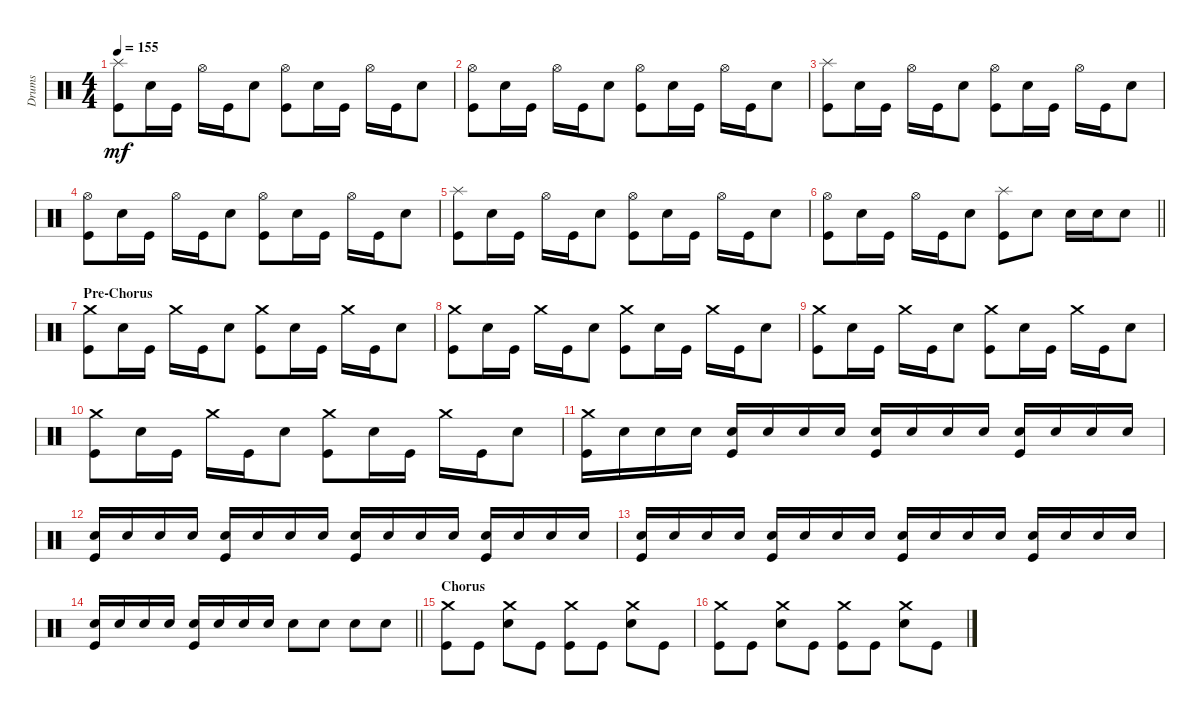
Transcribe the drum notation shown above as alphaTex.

\track ("Drums" "Drums") {instrument percussion}
\staff {score}
\articulation defaults
\ts (4 4)
\tempo 155
\clef neutral
\ks c
("Kick (hit)" "Splash (hit)").8{dy mf} "Snare (hit) 2".16 "Kick (hit)".16 "Hi-Hat (open)".16 "Kick (hit)".16 "Snare (hit) 2".8 ("Kick (hit)" "Hi-Hat (open)").8 "Snare (hit) 2".16 "Kick (hit)".16 "Hi-Hat (open)".16 "Kick (hit)".16 "Snare (hit) 2".8 |
("Kick (hit)" "Hi-Hat (open)").8 "Snare (hit) 2".16 "Kick (hit)".16 "Hi-Hat (open)".16 "Kick (hit)".16 "Snare (hit) 2".8 ("Kick (hit)" "Hi-Hat (open)").8 "Snare (hit) 2".16 "Kick (hit)".16 "Hi-Hat (open)".16 "Kick (hit)".16 "Snare (hit) 2".8 |
("Kick (hit)" "Splash (hit)").8 "Snare (hit) 2".16 "Kick (hit)".16 "Hi-Hat (open)".16 "Kick (hit)".16 "Snare (hit) 2".8 ("Kick (hit)" "Hi-Hat (open)").8 "Snare (hit) 2".16 "Kick (hit)".16 "Hi-Hat (open)".16 "Kick (hit)".16 "Snare (hit) 2".8 |
("Kick (hit)" "Hi-Hat (open)").8 "Snare (hit) 2".16 "Kick (hit)".16 "Hi-Hat (open)".16 "Kick (hit)".16 "Snare (hit) 2".8 ("Kick (hit)" "Hi-Hat (open)").8 "Snare (hit) 2".16 "Kick (hit)".16 "Hi-Hat (open)".16 "Kick (hit)".16 "Snare (hit) 2".8 |
("Kick (hit)" "Splash (hit)").8 "Snare (hit) 2".16 "Kick (hit)".16 "Hi-Hat (open)".16 "Kick (hit)".16 "Snare (hit) 2".8 ("Kick (hit)" "Hi-Hat (open)").8 "Snare (hit) 2".16 "Kick (hit)".16 "Hi-Hat (open)".16 "Kick (hit)".16 "Snare (hit) 2".8 |
\barLineRight lightlight
("Kick (hit)" "Hi-Hat (open)").8 "Snare (hit) 2".16 "Kick (hit)".16 "Hi-Hat (open)".16 "Kick (hit)".16 "Snare (hit) 2".8 ("Kick (hit)" "Splash (hit)").8 "Snare (hit) 2".8 "Snare (hit) 2".16 "Snare (hit) 2".16 "Snare (hit) 2".8 |
\section ("" "Pre-Chorus")
("Kick (hit)" "Crash medium (hit)").8 "Snare (hit) 2".16 "Kick (hit)".16 "Crash medium (hit)".16 "Kick (hit)".16 "Snare (hit) 2".8 ("Kick (hit)" "Crash medium (hit)").8 "Snare (hit) 2".16 "Kick (hit)".16 "Crash medium (hit)".16 "Kick (hit)".16 "Snare (hit) 2".8 |
("Kick (hit)" "Crash medium (hit)").8 "Snare (hit) 2".16 "Kick (hit)".16 "Crash medium (hit)".16 "Kick (hit)".16 "Snare (hit) 2".8 ("Kick (hit)" "Crash medium (hit)").8 "Snare (hit) 2".16 "Kick (hit)".16 "Crash medium (hit)".16 "Kick (hit)".16 "Snare (hit) 2".8 |
("Kick (hit)" "Crash medium (hit)").8 "Snare (hit) 2".16 "Kick (hit)".16 "Crash medium (hit)".16 "Kick (hit)".16 "Snare (hit) 2".8 ("Kick (hit)" "Crash medium (hit)").8 "Snare (hit) 2".16 "Kick (hit)".16 "Crash medium (hit)".16 "Kick (hit)".16 "Snare (hit) 2".8 |
("Kick (hit)" "Crash medium (hit)").8 "Snare (hit) 2".16 "Kick (hit)".16 "Crash medium (hit)".16 "Kick (hit)".16 "Snare (hit) 2".8 ("Kick (hit)" "Crash medium (hit)").8 "Snare (hit) 2".16 "Kick (hit)".16 "Crash medium (hit)".16 "Kick (hit)".16 "Snare (hit) 2".8 |
("Kick (hit)" "Crash medium (hit)").16 "Snare (hit) 2".16 "Snare (hit) 2".16 "Snare (hit) 2".16 ("Kick (hit)" "Snare (hit) 2").16 "Snare (hit) 2".16 "Snare (hit) 2".16 "Snare (hit) 2".16 ("Kick (hit)" "Snare (hit) 2").16 "Snare (hit) 2".16 "Snare (hit) 2".16 "Snare (hit) 2".16 ("Kick (hit)" "Snare (hit) 2").16 "Snare (hit) 2".16 "Snare (hit) 2".16 "Snare (hit) 2".16 |
("Kick (hit)" "Snare (hit) 2").16 "Snare (hit) 2".16 "Snare (hit) 2".16 "Snare (hit) 2".16 ("Kick (hit)" "Snare (hit) 2").16 "Snare (hit) 2".16 "Snare (hit) 2".16 "Snare (hit) 2".16 ("Kick (hit)" "Snare (hit) 2").16 "Snare (hit) 2".16 "Snare (hit) 2".16 "Snare (hit) 2".16 ("Kick (hit)" "Snare (hit) 2").16 "Snare (hit) 2".16 "Snare (hit) 2".16 "Snare (hit) 2".16 |
("Kick (hit)" "Snare (hit) 2").16 "Snare (hit) 2".16 "Snare (hit) 2".16 "Snare (hit) 2".16 ("Kick (hit)" "Snare (hit) 2").16 "Snare (hit) 2".16 "Snare (hit) 2".16 "Snare (hit) 2".16 ("Kick (hit)" "Snare (hit) 2").16 "Snare (hit) 2".16 "Snare (hit) 2".16 "Snare (hit) 2".16 ("Kick (hit)" "Snare (hit) 2").16 "Snare (hit) 2".16 "Snare (hit) 2".16 "Snare (hit) 2".16 |
\barLineRight lightlight
("Kick (hit)" "Snare (hit) 2").16 "Snare (hit) 2".16 "Snare (hit) 2".16 "Snare (hit) 2".16 ("Kick (hit)" "Snare (hit) 2").16 "Snare (hit) 2".16 "Snare (hit) 2".16 "Snare (hit) 2".16 "Snare (hit) 2".8 "Snare (hit) 2".8 "Snare (hit) 2".8 "Snare (hit) 2".8 |
\section ("" "Chorus")
("Kick (hit)" "Crash medium (hit)").8 "Kick (hit)".8 ("Snare (hit) 2" "Crash medium (hit)").8 "Kick (hit)".8 ("Kick (hit)" "Crash medium (hit)").8 "Kick (hit)".8 ("Snare (hit) 2" "Crash medium (hit)").8 "Kick (hit)".8 |
("Kick (hit)" "Crash medium (hit)").8 "Kick (hit)".8 ("Snare (hit) 2" "Crash medium (hit)").8 "Kick (hit)".8 ("Kick (hit)" "Crash medium (hit)").8 "Kick (hit)".8 ("Snare (hit) 2" "Crash medium (hit)").8 "Kick (hit)".8
